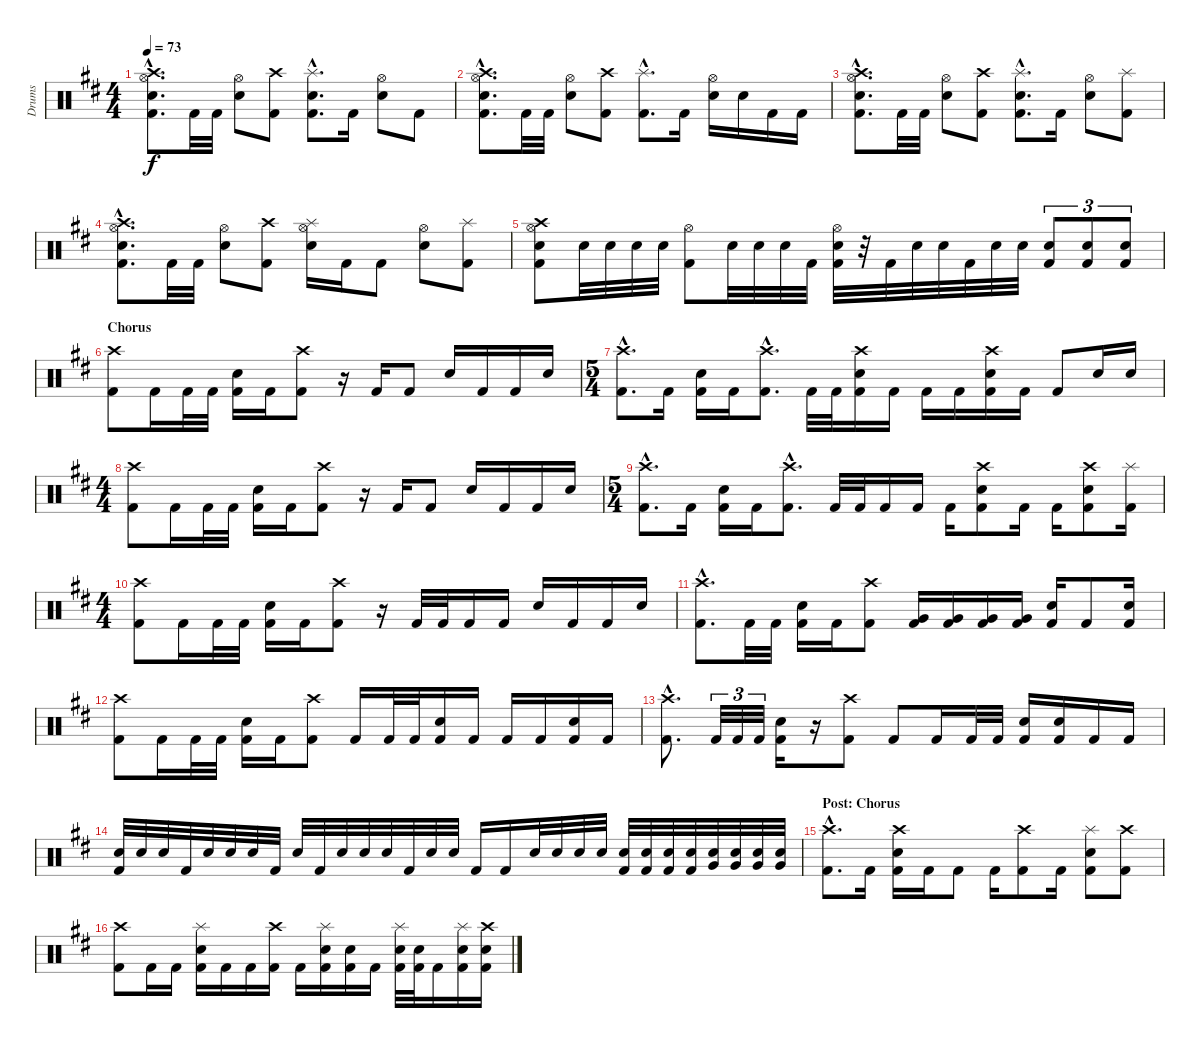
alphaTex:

\track ("Drums" "Drums") {instrument percussion}
\staff {score}
\articulation defaults
\ts (4 4)
\tempo 73
\clef neutral
\ks d
("Kick (hit) 2" "Electric Snare (hit)"{hac} "Hi-Hat (open)"{hac} "Crash high (hit)"{hac}).8{d dy f} "Kick (hit) 2".32 "Kick (hit) 2".32 ("Electric Snare (hit)" "Hi-Hat (open)").8 ("Kick (hit) 2" "Crash high (hit)").8 ("Electric Snare (hit)"{hac} "Splash (hit)"{hac} "Kick (hit) 2"{hac}).8{d} "Kick (hit) 2".16 ("Electric Snare (hit)" "Hi-Hat (open)").8 "Kick (hit) 2".8 |
("Kick (hit) 2" "Electric Snare (hit)"{hac} "Hi-Hat (open)"{hac} "Crash high (hit)"{hac}).8{d} "Kick (hit) 2".32 "Kick (hit) 2".32 ("Electric Snare (hit)" "Hi-Hat (open)").8 ("Kick (hit) 2" "Crash high (hit)").8 ("Splash (hit)"{hac} "Kick (hit) 2"{hac}).8{d} "Kick (hit) 2".16 ("Electric Snare (hit)" "Hi-Hat (open)").16 "Electric Snare (hit)".16 "Kick (hit) 2".16 "Kick (hit) 2".16 |
("Kick (hit) 2" "Electric Snare (hit)"{hac} "Hi-Hat (open)"{hac} "Crash high (hit)"{hac}).8{d} "Kick (hit) 2".32 "Kick (hit) 2".32 ("Electric Snare (hit)" "Hi-Hat (open)").8 ("Kick (hit) 2" "Crash high (hit)").8 ("Electric Snare (hit)"{hac} "Splash (hit)"{hac} "Kick (hit) 2"{hac}).8{d} "Kick (hit) 2".16 ("Electric Snare (hit)" "Hi-Hat (open)").8 ("Kick (hit) 2" "Splash (hit)").8 |
("Kick (hit) 2" "Electric Snare (hit)"{hac} "Hi-Hat (open)"{hac} "Crash high (hit)"{hac}).8{d} "Kick (hit) 2".32 "Kick (hit) 2".32 ("Electric Snare (hit)" "Hi-Hat (open)").8 ("Kick (hit) 2" "Crash high (hit)").8 ("Electric Snare (hit)" "Hi-Hat (open)" "Splash (hit)").16 "Kick (hit) 2".16 "Kick (hit) 2".8 ("Electric Snare (hit)" "Hi-Hat (open)").8 ("Kick (hit) 2" "Splash (hit)").8 |
("Kick (hit) 2" "Electric Snare (hit)" "Hi-Hat (open)" "Crash high (hit)").8 "Electric Snare (hit)".32 "Electric Snare (hit)".32 "Electric Snare (hit)".32 "Electric Snare (hit)".32 ("Kick (hit) 2" "Hi-Hat (open)").8 "Electric Snare (hit)".32 "Electric Snare (hit)".32 "Electric Snare (hit)".32 "Kick (hit) 2".32 ("Electric Snare (hit)" "Kick (hit) 2" "Hi-Hat (open)").32 r.32 "Kick (hit) 2".32 "Electric Snare (hit)".32 "Electric Snare (hit)".32 "Kick (hit) 2".32 "Electric Snare (hit)".32 "Electric Snare (hit)".32 ("Electric Snare (hit)" "Kick (hit) 2").8{tu (3 2)} ("Electric Snare (hit)" "Kick (hit) 2").8{tu (3 2)} ("Electric Snare (hit)" "Kick (hit) 2").8{tu (3 2)} |
\section ("" "Chorus")
("Kick (hit) 2" "Crash high (hit)").8 "Kick (hit) 2".16 "Kick (hit) 2".32 "Kick (hit) 2".32 ("Kick (hit) 2" "Electric Snare (hit)").16 "Kick (hit) 2".16 ("Kick (hit) 2" "Crash high (hit)").8 r.16 "Kick (hit) 2".16 "Kick (hit) 2".8 "Electric Snare (hit)".16 "Kick (hit) 2".16 "Kick (hit) 2".16 "Electric Snare (hit)".16 |
\ts (5 4)
("Kick (hit) 2"{hac} "Crash high (hit)"{hac}).8{d} "Kick (hit) 2".16 ("Kick (hit) 2" "Electric Snare (hit)").16 "Kick (hit) 2".16 ("Kick (hit) 2"{hac} "Crash high (hit)"{hac}).8{d} "Kick (hit) 2".32 "Kick (hit) 2".32 ("Kick (hit) 2" "Electric Snare (hit)" "Crash high (hit)").16 "Kick (hit) 2".16 "Kick (hit) 2".16 "Kick (hit) 2".16 ("Kick (hit) 2" "Crash high (hit)" "Electric Snare (hit)").16 "Kick (hit) 2".16 "Kick (hit) 2".8 "Electric Snare (hit)".16 "Electric Snare (hit)".16 |
\ts (4 4)
("Kick (hit) 2" "Crash high (hit)").8 "Kick (hit) 2".16 "Kick (hit) 2".32 "Kick (hit) 2".32 ("Kick (hit) 2" "Electric Snare (hit)").16 "Kick (hit) 2".16 ("Kick (hit) 2" "Crash high (hit)").8 r.16 "Kick (hit) 2".16 "Kick (hit) 2".8 "Electric Snare (hit)".16 "Kick (hit) 2".16 "Kick (hit) 2".16 "Electric Snare (hit)".16 |
\ts (5 4)
("Kick (hit) 2"{hac} "Crash high (hit)"{hac}).8{d} "Kick (hit) 2".16 ("Kick (hit) 2" "Electric Snare (hit)").16 "Kick (hit) 2".16 ("Kick (hit) 2"{hac} "Crash high (hit)"{hac}).8{d} "Kick (hit) 2".32 "Kick (hit) 2".32 "Kick (hit) 2".16 "Kick (hit) 2".16 "Kick (hit) 2".16 ("Kick (hit) 2" "Electric Snare (hit)" "Crash high (hit)").8 "Kick (hit) 2".16 "Kick (hit) 2".16 ("Kick (hit) 2" "Electric Snare (hit)" "Crash high (hit)").8 ("Kick (hit) 2" "Splash (hit)").16 |
\ts (4 4)
("Kick (hit) 2" "Crash high (hit)").8 "Kick (hit) 2".16 "Kick (hit) 2".32 "Kick (hit) 2".32 ("Kick (hit) 2" "Electric Snare (hit)").16 "Kick (hit) 2".16 ("Kick (hit) 2" "Crash high (hit)").8 r.16 "Kick (hit) 2".32 "Kick (hit) 2".32 "Kick (hit) 2".16 "Kick (hit) 2".16 "Electric Snare (hit)".16 "Kick (hit) 2".16 "Kick (hit) 2".16 "Electric Snare (hit)".16 |
("Kick (hit) 2" "Crash high (hit)"{hac}).8{d} "Kick (hit) 2".32 "Kick (hit) 2".32 ("Kick (hit) 2" "Electric Snare (hit)").16 "Kick (hit) 2".16 ("Kick (hit) 2" "Crash high (hit)").8 ("Kick (hit) 2" "Very Low Tom (hit)").16 ("Kick (hit) 2" "Very Low Tom (hit)").16 ("Kick (hit) 2" "Very Low Tom (hit)").16 ("Kick (hit) 2" "Very Low Tom (hit)").16 ("Kick (hit) 2" "Electric Snare (hit)").16 "Kick (hit) 2".8 ("Kick (hit) 2" "Electric Snare (hit)").16 |
("Kick (hit) 2" "Crash high (hit)").8 "Kick (hit) 2".16 "Kick (hit) 2".32 "Kick (hit) 2".32 ("Kick (hit) 2" "Electric Snare (hit)").16 "Kick (hit) 2".16 ("Kick (hit) 2" "Crash high (hit)").8 "Kick (hit) 2".16 "Kick (hit) 2".32 "Kick (hit) 2".32 ("Kick (hit) 2" "Electric Snare (hit)").16 "Kick (hit) 2".16 "Kick (hit) 2".16 "Kick (hit) 2".16 ("Kick (hit) 2" "Electric Snare (hit)").16 "Kick (hit) 2".16 |
("Kick (hit) 2"{hac} "Crash high (hit)"{hac}).8{d} "Kick (hit) 2".32{tu (3 2)} "Kick (hit) 2".32{tu (3 2)} "Kick (hit) 2".32{tu (3 2)} ("Kick (hit) 2" "Electric Snare (hit)").16 r.16 ("Kick (hit) 2" "Crash high (hit)").8 "Kick (hit) 2".8 "Kick (hit) 2".16 "Kick (hit) 2".32 "Kick (hit) 2".32 ("Kick (hit) 2" "Electric Snare (hit)").16 ("Kick (hit) 2" "Electric Snare (hit)").16 "Kick (hit) 2".16 "Kick (hit) 2".16 |
("Electric Snare (hit)" "Kick (hit) 2").32 "Electric Snare (hit)".32 "Electric Snare (hit)".32 "Kick (hit) 2".32 "Electric Snare (hit)".32 "Electric Snare (hit)".32 "Electric Snare (hit)".32 "Kick (hit) 2".32 "Electric Snare (hit)".32 "Kick (hit) 2".32 "Electric Snare (hit)".32 "Electric Snare (hit)".32 "Electric Snare (hit)".32 "Kick (hit) 2".32 "Electric Snare (hit)".32 "Electric Snare (hit)".32 "Kick (hit) 2".16 "Kick (hit) 2".16 "Electric Snare (hit)".32 "Electric Snare (hit)".32 "Electric Snare (hit)".32 "Electric Snare (hit)".32 ("Kick (hit) 2" "Electric Snare (hit)").32 ("Kick (hit) 2" "Electric Snare (hit)").32 ("Kick (hit) 2" "Electric Snare (hit)").32 ("Kick (hit) 2" "Electric Snare (hit)").32 ("Very Low Tom (hit)" "Electric Snare (hit)").32 ("Very Low Tom (hit)" "Electric Snare (hit)").32 ("Very Low Tom (hit)" "Electric Snare (hit)").32 ("Very Low Tom (hit)" "Electric Snare (hit)").32 |
\section ("" "Post: Chorus")
("Kick (hit) 2"{hac} "Crash high (hit)"{hac}).8{d} "Kick (hit) 2".16 ("Kick (hit) 2" "Electric Snare (hit)" "Crash high (hit)").16 "Kick (hit) 2".16 "Kick (hit) 2".8 "Kick (hit) 2".16 ("Kick (hit) 2" "Crash high (hit)").8 "Kick (hit) 2".16 ("Kick (hit) 2" "Electric Snare (hit)" "Splash (hit)").8 ("Kick (hit) 2" "Crash high (hit)").8 |
("Kick (hit) 2" "Crash high (hit)").8 "Kick (hit) 2".16 "Kick (hit) 2".16 ("Kick (hit) 2" "Electric Snare (hit)" "Splash (hit)").16 "Kick (hit) 2".16 "Kick (hit) 2".16 ("Kick (hit) 2" "Crash high (hit)").16 "Kick (hit) 2".16 ("Kick (hit) 2" "Electric Snare (hit)" "Splash (hit)").16 ("Kick (hit) 2" "Electric Snare (hit)").16 "Kick (hit) 2".16 ("Kick (hit) 2" "Electric Snare (hit)" "Splash (hit)").32 ("Kick (hit) 2" "Electric Snare (hit)").32 "Kick (hit) 2".16 ("Kick (hit) 2" "Splash (hit)" "Electric Snare (hit)").16 ("Kick (hit) 2" "Crash high (hit)" "Electric Snare (hit)").16
